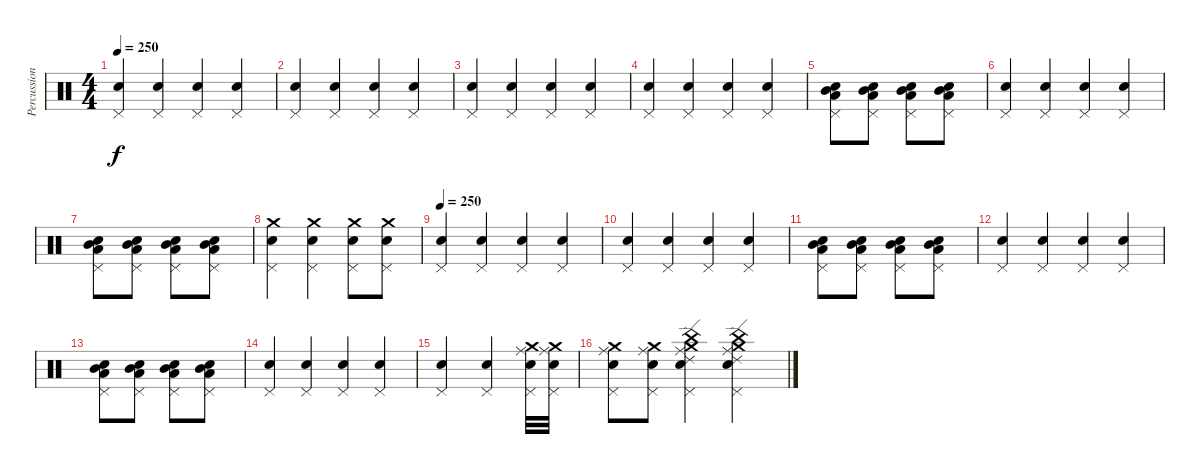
\track ("Percussion" "Percussion") {instrument percussion}
\staff {score}
\articulation defaults
\ts (4 4)
\tempo 250
\clef neutral
\ks c
("Metronome (bell)" "Pedal Hi-Hat (hit)").4{dy f} ("Metronome (bell)" "Pedal Hi-Hat (hit)").4 ("Metronome (bell)" "Pedal Hi-Hat (hit)").4 ("Metronome (bell)" "Pedal Hi-Hat (hit)").4 |
("Metronome (bell)" "Pedal Hi-Hat (hit)").4 ("Metronome (bell)" "Pedal Hi-Hat (hit)").4 ("Metronome (bell)" "Pedal Hi-Hat (hit)").4 ("Metronome (bell)" "Pedal Hi-Hat (hit)").4 |
("Metronome (bell)" "Pedal Hi-Hat (hit)").4 ("Metronome (bell)" "Pedal Hi-Hat (hit)").4 ("Metronome (bell)" "Pedal Hi-Hat (hit)").4 ("Metronome (bell)" "Pedal Hi-Hat (hit)").4 |
("Metronome (bell)" "Pedal Hi-Hat (hit)").4 ("Metronome (bell)" "Pedal Hi-Hat (hit)").4 ("Metronome (bell)" "Pedal Hi-Hat (hit)").4 ("Metronome (bell)" "Pedal Hi-Hat (hit)").4 |
("Metronome (bell)" "Pedal Hi-Hat (hit)" "Low Tom (hit)" "Mid Tom (hit)").8 ("Metronome (bell)" "Pedal Hi-Hat (hit)" "Low Tom (hit)" "Mid Tom (hit)").8 ("Metronome (bell)" "Pedal Hi-Hat (hit)" "Low Tom (hit)" "Mid Tom (hit)").8 ("Metronome (bell)" "Pedal Hi-Hat (hit)" "Low Tom (hit)" "Mid Tom (hit)").8 |
("Metronome (bell)" "Pedal Hi-Hat (hit)").4 ("Metronome (bell)" "Pedal Hi-Hat (hit)").4 ("Metronome (bell)" "Pedal Hi-Hat (hit)").4 ("Metronome (bell)" "Pedal Hi-Hat (hit)").4 |
("Metronome (bell)" "Pedal Hi-Hat (hit)" "Low Tom (hit)" "Mid Tom (hit)").8 ("Metronome (bell)" "Pedal Hi-Hat (hit)" "Low Tom (hit)" "Mid Tom (hit)").8 ("Metronome (bell)" "Pedal Hi-Hat (hit)" "Low Tom (hit)" "Mid Tom (hit)").8 ("Metronome (bell)" "Pedal Hi-Hat (hit)" "Low Tom (hit)" "Mid Tom (hit)").8 |
("Metronome (bell)" "Pedal Hi-Hat (hit)" "Crash medium (hit)").4 ("Metronome (bell)" "Pedal Hi-Hat (hit)" "Crash medium (hit)").4 ("Metronome (bell)" "Pedal Hi-Hat (hit)" "Crash medium (hit)").8 ("Metronome (bell)" "Pedal Hi-Hat (hit)" "Crash medium (hit)").8 |
\tempo 250
("Metronome (bell)" "Pedal Hi-Hat (hit)").4 ("Metronome (bell)" "Pedal Hi-Hat (hit)").4 ("Metronome (bell)" "Pedal Hi-Hat (hit)").4 ("Metronome (bell)" "Pedal Hi-Hat (hit)").4 |
("Metronome (bell)" "Pedal Hi-Hat (hit)").4 ("Metronome (bell)" "Pedal Hi-Hat (hit)").4 ("Metronome (bell)" "Pedal Hi-Hat (hit)").4 ("Metronome (bell)" "Pedal Hi-Hat (hit)").4 |
("Metronome (bell)" "Pedal Hi-Hat (hit)" "Low Tom (hit)" "Mid Tom (hit)").8 ("Metronome (bell)" "Pedal Hi-Hat (hit)" "Low Tom (hit)" "Mid Tom (hit)").8 ("Metronome (bell)" "Pedal Hi-Hat (hit)" "Low Tom (hit)" "Mid Tom (hit)").8 ("Metronome (bell)" "Pedal Hi-Hat (hit)" "Low Tom (hit)" "Mid Tom (hit)").8 |
("Metronome (bell)" "Pedal Hi-Hat (hit)").4 ("Metronome (bell)" "Pedal Hi-Hat (hit)").4 ("Metronome (bell)" "Pedal Hi-Hat (hit)").4 ("Metronome (bell)" "Pedal Hi-Hat (hit)").4 |
("Metronome (bell)" "Pedal Hi-Hat (hit)" "Low Tom (hit)" "Mid Tom (hit)").8 ("Metronome (bell)" "Pedal Hi-Hat (hit)" "Low Tom (hit)" "Mid Tom (hit)").8 ("Metronome (bell)" "Pedal Hi-Hat (hit)" "Low Tom (hit)" "Mid Tom (hit)").8 ("Metronome (bell)" "Pedal Hi-Hat (hit)" "Low Tom (hit)" "Mid Tom (hit)").8 |
("Metronome (bell)" "Pedal Hi-Hat (hit)").4 ("Metronome (bell)" "Pedal Hi-Hat (hit)").4 ("Metronome (bell)" "Pedal Hi-Hat (hit)").4 ("Metronome (bell)" "Pedal Hi-Hat (hit)").4 |
("Metronome (bell)" "Pedal Hi-Hat (hit)").4 ("Metronome (bell)" "Pedal Hi-Hat (hit)").4 ("Metronome (bell)" "Pedal Hi-Hat (hit)" "Ride (middle)" "Crash medium (hit)").32 ("Metronome (bell)" "Pedal Hi-Hat (hit)" "Ride (middle)" "Crash medium (hit)").32 |
("Metronome (bell)" "Pedal Hi-Hat (hit)" "Ride (middle)" "Crash medium (hit)").8 ("Metronome (bell)" "Pedal Hi-Hat (hit)" "Ride (middle)" "Crash medium (hit)").8 ("Metronome (bell)" "Pedal Hi-Hat (hit)" "Ride (middle)" "Crash medium (hit)" "China (hit)" "Ride (edge) 2").4 ("Metronome (bell)" "Pedal Hi-Hat (hit)" "Ride (middle)" "Crash medium (hit)" "China (hit)" "Ride (edge) 2").4
